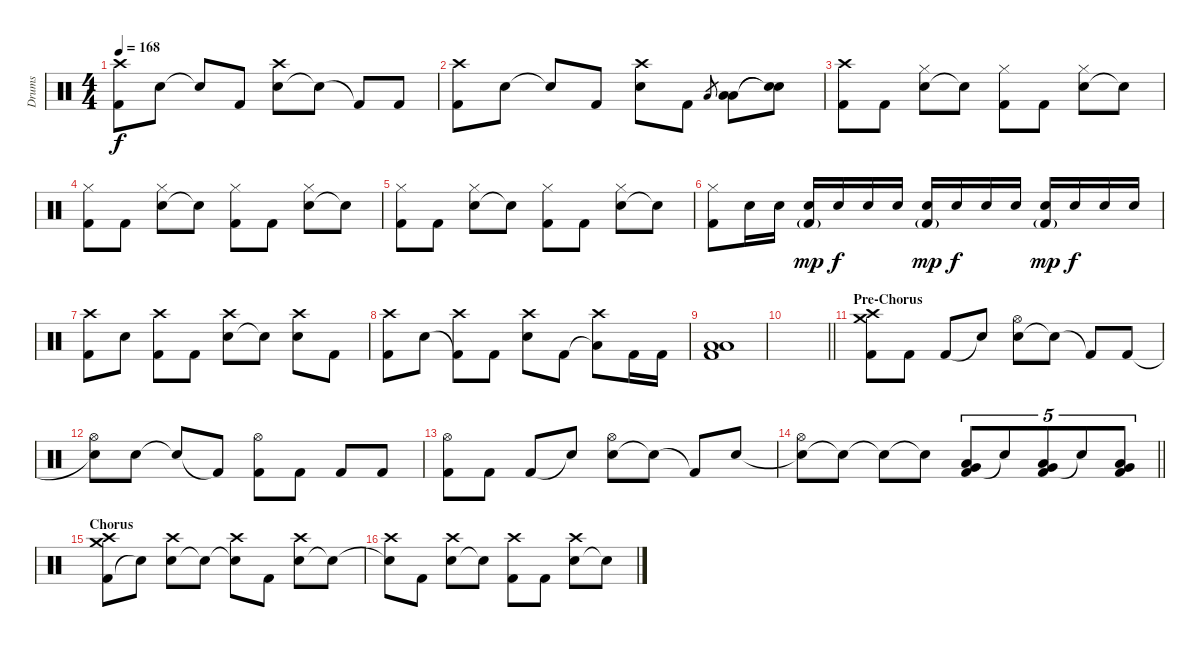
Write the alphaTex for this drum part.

\track ("Drums" "Drums") {instrument percussion}
\staff {score}
\articulation defaults
\ts (4 4)
\tempo 168
\clef neutral
\ks c
("Kick (hit) 2" "Crash high (hit)").8{dy f} "Electric Snare (hit)".8 "Snare (hit)"{t}.8 "Kick (hit) 2".8 ("Electric Snare (hit)" "Crash high (hit)").8 "Snare (hit)"{t}.8 "Kick (hit) 2"{t}.8 "Kick (hit) 2".8 |
("Kick (hit) 2" "Crash high (hit)").8 "Electric Snare (hit)".8 "Snare (hit)"{t}.8 "Kick (hit) 2".8 ("Electric Snare (hit)" "Crash high (hit)").8 "Kick (hit) 2".8 "Low Tom (hit)".8{gr} ("Low Tom (hit)" "Low Floor Tom (hit)").8 ("Snare (hit)"{t} "Snare (hit)"{t}).8 |
("Kick (hit) 2" "Crash high (hit)").8 "Kick (hit) 2".8 ("Electric Snare (hit)" "Hi-Hat (closed)").8 "Snare (hit)"{t}.8 ("Kick (hit) 2" "Hi-Hat (closed)").8 "Kick (hit) 2".8 ("Electric Snare (hit)" "Hi-Hat (closed)").8 "Snare (hit)"{t}.8 |
("Kick (hit) 2" "Hi-Hat (closed)").8 "Kick (hit) 2".8 ("Electric Snare (hit)" "Hi-Hat (closed)").8 "Snare (hit)"{t}.8 ("Kick (hit) 2" "Hi-Hat (closed)").8 "Kick (hit) 2".8 ("Electric Snare (hit)" "Hi-Hat (closed)").8 "Snare (hit)"{t}.8 |
("Kick (hit) 2" "Hi-Hat (closed)").8 "Kick (hit) 2".8 ("Electric Snare (hit)" "Hi-Hat (closed)").8 "Snare (hit)"{t}.8 ("Kick (hit) 2" "Hi-Hat (closed)").8 "Kick (hit) 2".8 ("Electric Snare (hit)" "Hi-Hat (closed)").8 "Snare (hit)"{t}.8 |
("Kick (hit) 2" "Hi-Hat (closed)").8 "Electric Snare (hit)".16 "Electric Snare (hit)".16 ("Electric Snare (hit)" "Kick (hit) 2"{g}).16{dy mp} "Electric Snare (hit)".16{dy f} "Electric Snare (hit)".16 "Electric Snare (hit)".16 ("Electric Snare (hit)" "Kick (hit) 2"{g}).16{dy mp} "Electric Snare (hit)".16{dy f} "Electric Snare (hit)".16 "Electric Snare (hit)".16 ("Electric Snare (hit)" "Kick (hit) 2"{g}).16{dy mp} "Electric Snare (hit)".16{dy f} "Electric Snare (hit)".16 "Electric Snare (hit)".16 |
("Kick (hit) 2" "Crash high (hit)").8 "Electric Snare (hit)".8 ("Kick (hit) 2" "Crash high (hit)").8 "Kick (hit) 2".8 ("Electric Snare (hit)" "Crash high (hit)").8 "Snare (hit)"{t}.8 ("Electric Snare (hit)" "Crash high (hit)").8 "Kick (hit) 2".8 |
("Kick (hit) 2" "Crash high (hit)").8 "Electric Snare (hit)".8 ("Kick (hit) 2"{t} "Crash high (hit)").8 "Kick (hit) 2".8 ("Electric Snare (hit)" "Crash high (hit)").8 "Kick (hit) 2".8 ("Low Tom (hit)"{t} "Crash high (hit)").8 "Kick (hit) 2".16 "Kick (hit) 2".16 |
("Low Tom (hit)" "Low Floor Tom (hit)" "Kick (hit) 2").1 |
\barLineRight lightlight
|
\section ("" "Pre-Chorus")
("Kick (hit) 2" "Crash medium (hit)" "Crash high (hit)").8 "Kick (hit) 2".8 "Kick (hit) 2".8 "Snare (hit)"{t}.8 ("Electric Snare (hit)" "Hi-Hat (open)").8 "Snare (hit)"{t}.8 "Kick (hit) 2"{t}.8 "Kick (hit) 2".8 |
("Electric Snare (hit)"{t} "Hi-Hat (open)").8 "Electric Snare (hit)".8 "Snare (hit)"{t}.8 "Kick (hit) 2"{t}.8 ("Kick (hit) 2" "Hi-Hat (open)").8 "Kick (hit) 2".8 "Kick (hit) 2".8 "Kick (hit) 2".8 |
("Kick (hit) 2" "Hi-Hat (open)").8 "Kick (hit) 2".8 "Kick (hit) 2".8 "Snare (hit)"{t}.8 ("Electric Snare (hit)" "Hi-Hat (open)").8 "Snare (hit)"{t}.8 "Kick (hit) 2"{t}.8 "Electric Snare (hit)".8 |
\barLineRight lightlight
("Electric Snare (hit)"{t} "Hi-Hat (open)").8 "Snare (hit)"{t}.8 "Snare (hit)"{t}.8 "Snare (hit)"{t}.8 ("Kick (hit) 2" "Low Floor Tom (hit)" "Very Low Tom (hit)").8{tu (5 4)} "Snare (hit)"{t}.8{tu (5 4)} ("Kick (hit) 2" "Low Floor Tom (hit)" "Very Low Tom (hit)").8{tu (5 4)} "Snare (hit)"{t}.8{tu (5 4)} ("Kick (hit) 2" "Low Floor Tom (hit)" "Very Low Tom (hit)").8{tu (5 4)} |
\section ("" "Chorus")
("Kick (hit) 2" "Crash medium (hit)" "Crash high (hit)").8 "Snare (hit)"{t}.8 ("Electric Snare (hit)" "Crash high (hit)").8 "Snare (hit)"{t}.8 ("Snare (hit)"{t} "Crash high (hit)").8 "Kick (hit) 2".8 ("Electric Snare (hit)" "Crash high (hit)").8 "Snare (hit)"{t}.8 |
("Snare (hit)"{t} "Crash high (hit)").8 "Kick (hit) 2".8 ("Electric Snare (hit)" "Crash high (hit)").8 "Snare (hit)"{t}.8 ("Kick (hit) 2" "Crash high (hit)").8 "Kick (hit) 2".8 ("Electric Snare (hit)" "Crash high (hit)").8 "Snare (hit)"{t}.8
